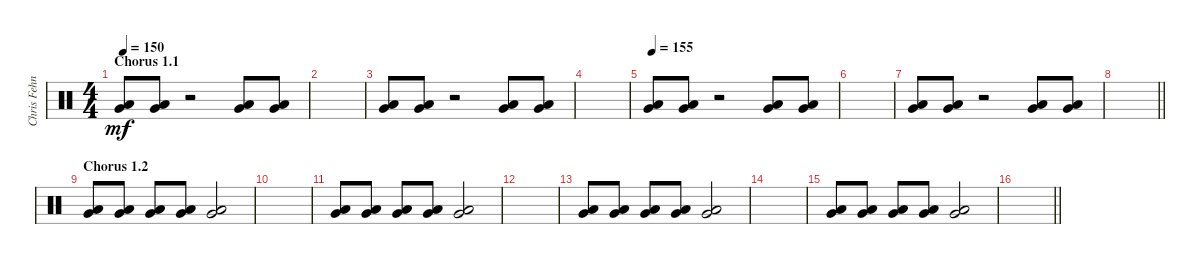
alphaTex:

\track ("Chris Fehn" "Chris Fehn") {instrument percussion}
\staff {score}
\articulation defaults
\ts (4 4)
\section ("" "Chorus 1.1")
\tempo 150
\clef neutral
\ks c
("Very Low Tom (hit)" "Low Floor Tom (hit)").8{dy mf} ("Very Low Tom (hit)" "Low Floor Tom (hit)").8 r.2 ("Very Low Tom (hit)" "Low Floor Tom (hit)").8 ("Very Low Tom (hit)" "Low Floor Tom (hit)").8 |
|
("Very Low Tom (hit)" "Low Floor Tom (hit)").8 ("Very Low Tom (hit)" "Low Floor Tom (hit)").8 r.2 ("Very Low Tom (hit)" "Low Floor Tom (hit)").8 ("Very Low Tom (hit)" "Low Floor Tom (hit)").8 |
|
\tempo 155
("Very Low Tom (hit)" "Low Floor Tom (hit)").8 ("Very Low Tom (hit)" "Low Floor Tom (hit)").8 r.2 ("Very Low Tom (hit)" "Low Floor Tom (hit)").8 ("Very Low Tom (hit)" "Low Floor Tom (hit)").8 |
|
("Very Low Tom (hit)" "Low Floor Tom (hit)").8 ("Very Low Tom (hit)" "Low Floor Tom (hit)").8 r.2 ("Very Low Tom (hit)" "Low Floor Tom (hit)").8 ("Very Low Tom (hit)" "Low Floor Tom (hit)").8 |
\barLineRight lightlight
|
\section ("" "Chorus 1.2")
("Very Low Tom (hit)" "Low Floor Tom (hit)").8 ("Very Low Tom (hit)" "Low Floor Tom (hit)").8 ("Very Low Tom (hit)" "Low Floor Tom (hit)").8 ("Very Low Tom (hit)" "Low Floor Tom (hit)").8 ("Very Low Tom (hit)" "Low Floor Tom (hit)").2 |
|
("Very Low Tom (hit)" "Low Floor Tom (hit)").8 ("Very Low Tom (hit)" "Low Floor Tom (hit)").8 ("Very Low Tom (hit)" "Low Floor Tom (hit)").8 ("Very Low Tom (hit)" "Low Floor Tom (hit)").8 ("Very Low Tom (hit)" "Low Floor Tom (hit)").2 |
|
("Very Low Tom (hit)" "Low Floor Tom (hit)").8 ("Very Low Tom (hit)" "Low Floor Tom (hit)").8 ("Very Low Tom (hit)" "Low Floor Tom (hit)").8 ("Very Low Tom (hit)" "Low Floor Tom (hit)").8 ("Very Low Tom (hit)" "Low Floor Tom (hit)").2 |
|
("Very Low Tom (hit)" "Low Floor Tom (hit)").8 ("Very Low Tom (hit)" "Low Floor Tom (hit)").8 ("Very Low Tom (hit)" "Low Floor Tom (hit)").8 ("Very Low Tom (hit)" "Low Floor Tom (hit)").8 ("Very Low Tom (hit)" "Low Floor Tom (hit)").2 |
\barLineRight lightlight
